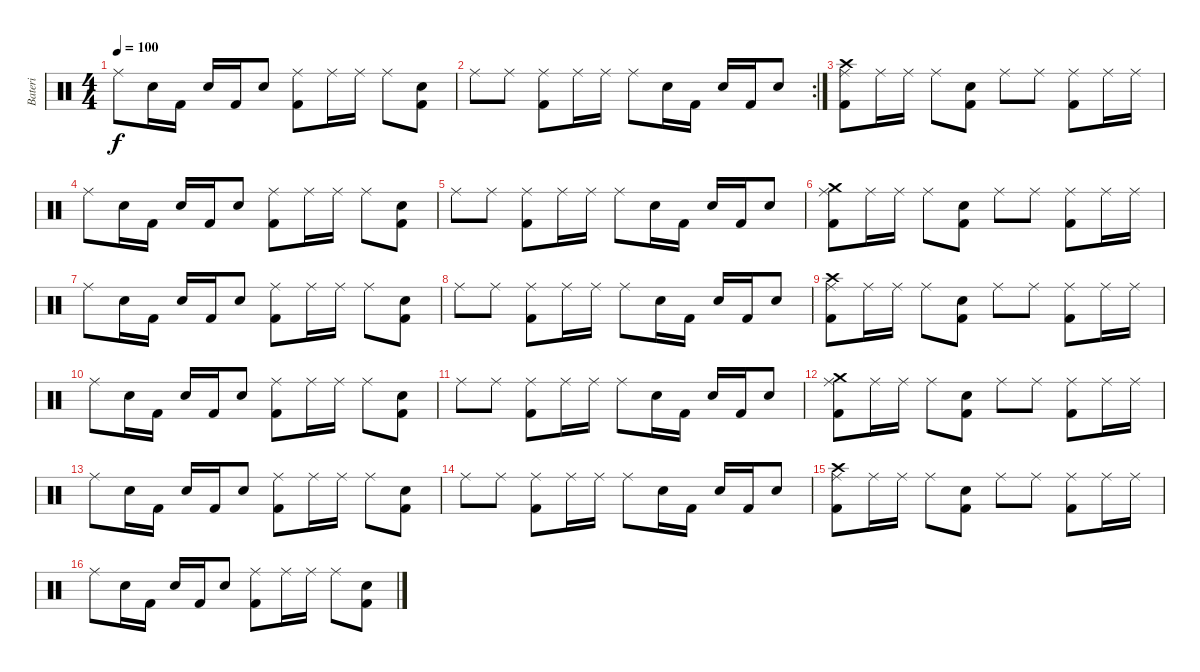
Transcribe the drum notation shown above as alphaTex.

\track ("Bateri" "Bateri") {instrument percussion}
\staff {score}
\articulation defaults
\ts (4 4)
\tempo 100
\clef neutral
\ks c "Ride (middle)".8{dy f} "Snare (hit) 2".16 "Kick (hit) 2".16 "Snare (hit) 2".16 "Kick (hit) 2".16 "Snare (hit) 2".8
("Ride (middle)" "Kick (hit) 2").8 "Ride (middle)".16 "Ride (middle)".16 "Ride (middle)".8 ("Snare (hit) 2" "Kick (hit) 2").8 |
\rc 2 "Ride (middle)".8 "Ride (middle)".8
("Ride (middle)" "Kick (hit) 2").8 "Ride (middle)".16 "Ride (middle)".16 "Ride (middle)".8 "Snare (hit) 2".16 "Kick (hit) 2".16 "Snare (hit) 2".16 "Kick (hit) 2".16 "Snare (hit) 2".8 |
("Crash high (hit)" "Ride (middle)" "Kick (hit) 2").8 "Ride (middle)".16 "Ride (middle)".16 "Ride (middle)".8 ("Snare (hit) 2" "Kick (hit) 2").8 "Ride (middle)".8 "Ride (middle)".8 ("Ride (middle)" "Kick (hit) 2").8 "Ride (middle)".16 "Ride (middle)".16 |
"Ride (middle)".8 "Snare (hit) 2".16 "Kick (hit) 2".16 "Snare (hit) 2".16 "Kick (hit) 2".16 "Snare (hit) 2".8 ("Ride (middle)" "Kick (hit) 2").8 "Ride (middle)".16 "Ride (middle)".16 "Ride (middle)".8 ("Snare (hit) 2" "Kick (hit) 2").8 |
"Ride (middle)".8 "Ride (middle)".8 ("Ride (middle)" "Kick (hit) 2").8 "Ride (middle)".16 "Ride (middle)".16 "Ride (middle)".8 "Snare (hit) 2".16 "Kick (hit) 2".16 "Snare (hit) 2".16 "Kick (hit) 2".16 "Snare (hit) 2".8 |
("Crash medium (hit)" "Ride (middle)" "Kick (hit) 2").8 "Ride (middle)".16 "Ride (middle)".16 "Ride (middle)".8 ("Snare (hit) 2" "Kick (hit) 2").8 "Ride (middle)".8 "Ride (middle)".8 ("Ride (middle)" "Kick (hit) 2").8 "Ride (middle)".16 "Ride (middle)".16 |
"Ride (middle)".8 "Snare (hit) 2".16 "Kick (hit) 2".16 "Snare (hit) 2".16 "Kick (hit) 2".16 "Snare (hit) 2".8 ("Ride (middle)" "Kick (hit) 2").8 "Ride (middle)".16 "Ride (middle)".16 "Ride (middle)".8 ("Snare (hit) 2" "Kick (hit) 2").8 |
"Ride (middle)".8 "Ride (middle)".8 ("Ride (middle)" "Kick (hit) 2").8 "Ride (middle)".16 "Ride (middle)".16 "Ride (middle)".8 "Snare (hit) 2".16 "Kick (hit) 2".16 "Snare (hit) 2".16 "Kick (hit) 2".16 "Snare (hit) 2".8 |
("Crash high (hit)" "Ride (middle)" "Kick (hit) 2").8 "Ride (middle)".16 "Ride (middle)".16 "Ride (middle)".8 ("Snare (hit) 2" "Kick (hit) 2").8 "Ride (middle)".8 "Ride (middle)".8 ("Ride (middle)" "Kick (hit) 2").8 "Ride (middle)".16 "Ride (middle)".16 |
"Ride (middle)".8 "Snare (hit) 2".16 "Kick (hit) 2".16 "Snare (hit) 2".16 "Kick (hit) 2".16 "Snare (hit) 2".8 ("Ride (middle)" "Kick (hit) 2").8 "Ride (middle)".16 "Ride (middle)".16 "Ride (middle)".8 ("Snare (hit) 2" "Kick (hit) 2").8 |
"Ride (middle)".8 "Ride (middle)".8 ("Ride (middle)" "Kick (hit) 2").8 "Ride (middle)".16 "Ride (middle)".16 "Ride (middle)".8 "Snare (hit) 2".16 "Kick (hit) 2".16 "Snare (hit) 2".16 "Kick (hit) 2".16 "Snare (hit) 2".8 |
("Crash medium (hit)" "Ride (middle)" "Kick (hit) 2").8 "Ride (middle)".16 "Ride (middle)".16 "Ride (middle)".8 ("Snare (hit) 2" "Kick (hit) 2").8 "Ride (middle)".8 "Ride (middle)".8 ("Ride (middle)" "Kick (hit) 2").8 "Ride (middle)".16 "Ride (middle)".16 |
"Ride (middle)".8 "Snare (hit) 2".16 "Kick (hit) 2".16 "Snare (hit) 2".16 "Kick (hit) 2".16 "Snare (hit) 2".8 ("Ride (middle)" "Kick (hit) 2").8 "Ride (middle)".16 "Ride (middle)".16 "Ride (middle)".8 ("Snare (hit) 2" "Kick (hit) 2").8 |
"Ride (middle)".8 "Ride (middle)".8 ("Ride (middle)" "Kick (hit) 2").8 "Ride (middle)".16 "Ride (middle)".16 "Ride (middle)".8 "Snare (hit) 2".16 "Kick (hit) 2".16 "Snare (hit) 2".16 "Kick (hit) 2".16 "Snare (hit) 2".8 |
("Crash high (hit)" "Ride (middle)" "Kick (hit) 2").8 "Ride (middle)".16 "Ride (middle)".16 "Ride (middle)".8 ("Snare (hit) 2" "Kick (hit) 2").8 "Ride (middle)".8 "Ride (middle)".8 ("Ride (middle)" "Kick (hit) 2").8 "Ride (middle)".16 "Ride (middle)".16 |
"Ride (middle)".8 "Snare (hit) 2".16 "Kick (hit) 2".16 "Snare (hit) 2".16 "Kick (hit) 2".16 "Snare (hit) 2".8 ("Ride (middle)" "Kick (hit) 2").8 "Ride (middle)".16 "Ride (middle)".16 "Ride (middle)".8 ("Snare (hit) 2" "Kick (hit) 2").8
